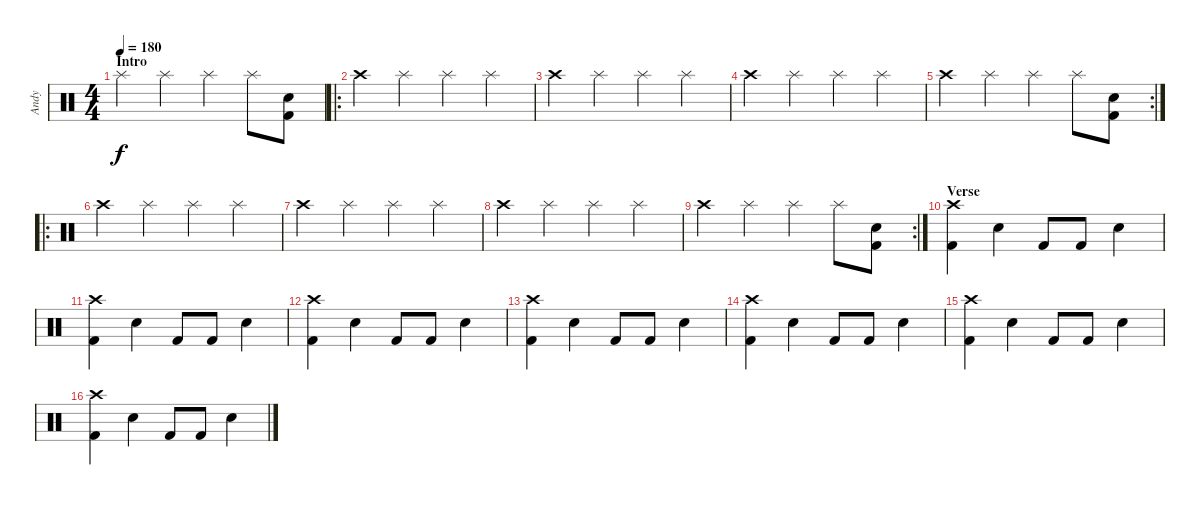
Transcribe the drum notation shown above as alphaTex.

\track ("Andy" "Andy") {instrument percussion}
\staff {score}
\articulation defaults
\ts (4 4)
\section ("" "Intro")
\tempo 180
\clef neutral
\ks c "Splash (hit)".4{dy f} "Splash (hit)".4 "Splash (hit)".4 "Splash (hit)".8
("Snare (hit) 2" "Kick (hit) 2").8 |
\ro "Crash high (hit)".4 "Splash (hit)".4 "Splash (hit)".4 "Splash (hit)".4
|
"Crash high (hit)".4 "Splash (hit)".4 "Splash (hit)".4 "Splash (hit)".4 |
"Crash high (hit)".4 "Splash (hit)".4 "Splash (hit)".4 "Splash (hit)".4 |
\rc 2 "Crash high (hit)".4 "Splash (hit)".4 "Splash (hit)".4 "Splash (hit)".8
("Snare (hit) 2" "Kick (hit) 2").8 |
\ro "Crash high (hit)".4 "Splash (hit)".4 "Splash (hit)".4 "Splash (hit)".4
|
"Crash high (hit)".4 "Splash (hit)".4 "Splash (hit)".4 "Splash (hit)".4 |
"Crash high (hit)".4 "Splash (hit)".4 "Splash (hit)".4 "Splash (hit)".4 |
\rc 2 "Crash high (hit)".4 "Splash (hit)".4 "Splash (hit)".4 "Splash (hit)".8
("Snare (hit) 2" "Kick (hit) 2").8 |
\section ("" "Verse")
("Crash high (hit)" "Kick (hit) 2").4 "Snare (hit) 2".4 "Kick (hit) 2".8 "Kick (hit) 2".8 "Snare (hit) 2".4 |
("Crash high (hit)" "Kick (hit) 2").4 "Snare (hit) 2".4 "Kick (hit) 2".8 "Kick (hit) 2".8 "Snare (hit) 2".4 |
("Crash high (hit)" "Kick (hit) 2").4 "Snare (hit) 2".4 "Kick (hit) 2".8 "Kick (hit) 2".8 "Snare (hit) 2".4 |
("Crash high (hit)" "Kick (hit) 2").4 "Snare (hit) 2".4 "Kick (hit) 2".8 "Kick (hit) 2".8 "Snare (hit) 2".4 |
("Crash high (hit)" "Kick (hit) 2").4 "Snare (hit) 2".4 "Kick (hit) 2".8 "Kick (hit) 2".8 "Snare (hit) 2".4 |
("Crash high (hit)" "Kick (hit) 2").4 "Snare (hit) 2".4 "Kick (hit) 2".8 "Kick (hit) 2".8 "Snare (hit) 2".4 |
("Crash high (hit)" "Kick (hit) 2").4 "Snare (hit) 2".4 "Kick (hit) 2".8 "Kick (hit) 2".8 "Snare (hit) 2".4
